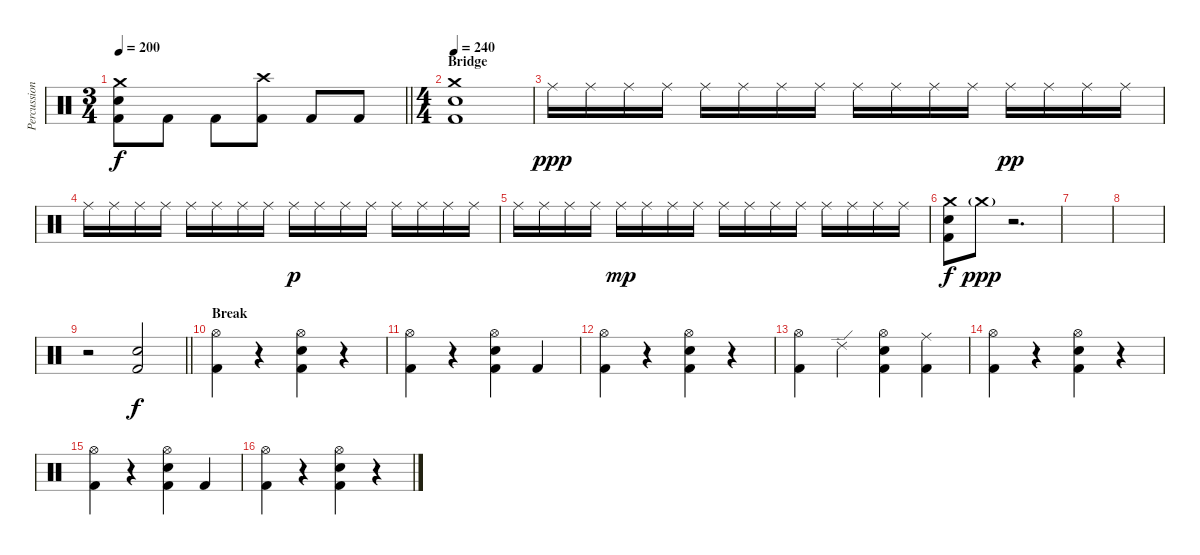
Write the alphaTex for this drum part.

\track ("Percussion" "Percussion") {instrument percussion}
\staff {score}
\articulation defaults
\ts (3 4)
\tempo 200
\clef neutral
\barLineRight lightlight
\ks c
("Crash medium (hit)" "Electric Snare (hit)" "Kick (hit) 2").8{dy f} "Kick (hit) 2".8 "Kick (hit) 2".8 ("Crash high (hit)" "Kick (hit) 2").8 "Kick (hit) 2".8 "Kick (hit) 2".8 |
\ts (4 4)
\section ("" "Bridge")
\tempo 240
("Crash medium (hit)" "Electric Snare (hit)" "Kick (hit) 2").1 |
"Ride (middle)".16{dy ppp} "Ride (middle)".16 "Ride (middle)".16 "Ride (middle)".16 "Ride (middle)".16 "Ride (middle)".16 "Ride (middle)".16 "Ride (middle)".16 "Ride (middle)".16 "Ride (middle)".16 "Ride (middle)".16 "Ride (middle)".16 "Ride (middle)".16{dy pp} "Ride (middle)".16 "Ride (middle)".16 "Ride (middle)".16 |
"Ride (middle)".16 "Ride (middle)".16 "Ride (middle)".16 "Ride (middle)".16 "Ride (middle)".16 "Ride (middle)".16 "Ride (middle)".16 "Ride (middle)".16 "Ride (middle)".16{dy p} "Ride (middle)".16 "Ride (middle)".16 "Ride (middle)".16 "Ride (middle)".16 "Ride (middle)".16 "Ride (middle)".16 "Ride (middle)".16 |
"Ride (middle)".16 "Ride (middle)".16 "Ride (middle)".16 "Ride (middle)".16 "Ride (middle)".16{dy mp} "Ride (middle)".16 "Ride (middle)".16 "Ride (middle)".16 "Ride (middle)".16 "Ride (middle)".16 "Ride (middle)".16 "Ride (middle)".16 "Ride (middle)".16 "Ride (middle)".16 "Ride (middle)".16 "Ride (middle)".16 |
("Crash medium (hit)" "Electric Snare (hit)" "Kick (hit) 2").8{dy f} "Crash medium (hit)"{g}.8{dy ppp} r.2{d} |
|
|
\barLineRight lightlight
r.2 ("Electric Snare (hit)" "Kick (hit) 2").2{dy f} |
\section ("" "Break")
("Hi-Hat (open)" "Kick (hit) 2").4 r.4 ("Hi-Hat (open)" "Electric Snare (hit)" "Kick (hit) 2").4 r.4 |
("Hi-Hat (open)" "Kick (hit) 2").4 r.4 ("Hi-Hat (open)" "Electric Snare (hit)" "Kick (hit) 2").4 "Kick (hit) 2".4 |
("Hi-Hat (open)" "Kick (hit) 2").4 r.4 ("Hi-Hat (open)" "Electric Snare (hit)" "Kick (hit) 2").4 r.4 |
("Hi-Hat (open)" "Kick (hit) 2").4 "Ride (edge) 2".4 ("Hi-Hat (open)" "Electric Snare (hit)" "Kick (hit) 2").4 ("Ride (middle)" "Kick (hit) 2").4 |
("Hi-Hat (open)" "Kick (hit) 2").4 r.4 ("Hi-Hat (open)" "Electric Snare (hit)" "Kick (hit) 2").4 r.4 |
("Hi-Hat (open)" "Kick (hit) 2").4 r.4 ("Hi-Hat (open)" "Electric Snare (hit)" "Kick (hit) 2").4 "Kick (hit) 2".4 |
("Hi-Hat (open)" "Kick (hit) 2").4 r.4 ("Hi-Hat (open)" "Electric Snare (hit)" "Kick (hit) 2").4 r.4
